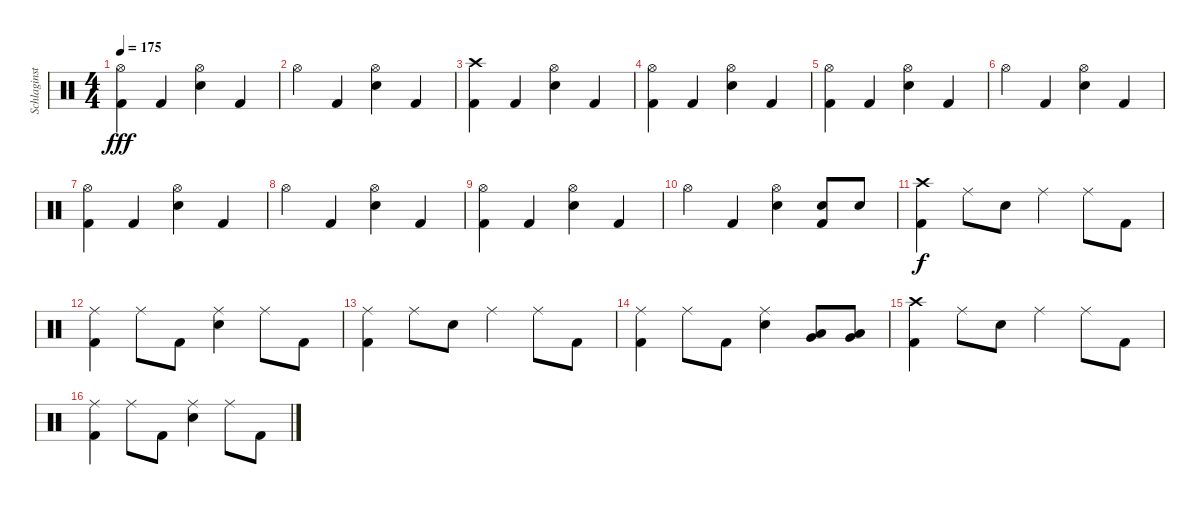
\track ("Schlaginstrumente - Auswahl" "Schlaginst") {instrument percussion}
\staff {score}
\articulation defaults
\ts (4 4)
\tempo 175
\clef neutral
\ks c
("Hi-Hat (open)" "Kick (hit) 2").4{dy fff} "Kick (hit) 2".4 ("Hi-Hat (open)" "Electric Snare (hit)").4 "Kick (hit) 2".4 |
"Hi-Hat (open)".4 "Kick (hit) 2".4 ("Hi-Hat (open)" "Electric Snare (hit)").4 "Kick (hit) 2".4 |
("Crash high (hit)" "Kick (hit) 2").4 "Kick (hit) 2".4 ("Hi-Hat (open)" "Electric Snare (hit)").4 "Kick (hit) 2".4 |
("Hi-Hat (open)" "Kick (hit) 2").4 "Kick (hit) 2".4 ("Hi-Hat (open)" "Electric Snare (hit)").4 "Kick (hit) 2".4 |
("Hi-Hat (open)" "Kick (hit) 2").4 "Kick (hit) 2".4 ("Hi-Hat (open)" "Electric Snare (hit)").4 "Kick (hit) 2".4 |
"Hi-Hat (open)".4 "Kick (hit) 2".4 ("Hi-Hat (open)" "Electric Snare (hit)").4 "Kick (hit) 2".4 |
("Hi-Hat (open)" "Kick (hit) 2").4 "Kick (hit) 2".4 ("Hi-Hat (open)" "Electric Snare (hit)").4 "Kick (hit) 2".4 |
"Hi-Hat (open)".4 "Kick (hit) 2".4 ("Hi-Hat (open)" "Electric Snare (hit)").4 "Kick (hit) 2".4 |
("Hi-Hat (open)" "Kick (hit) 2").4 "Kick (hit) 2".4 ("Hi-Hat (open)" "Electric Snare (hit)").4 "Kick (hit) 2".4 |
"Hi-Hat (open)".4 "Kick (hit) 2".4 ("Hi-Hat (open)" "Electric Snare (hit)").4 ("Electric Snare (hit)" "Kick (hit) 2").8 "Electric Snare (hit)".8 |
("Kick (hit) 2" "Crash high (hit)").4{dy f} "Ride (middle)".8 "Electric Snare (hit)".8 "Ride (middle)".4 "Ride (middle)".8 "Kick (hit) 2".8 |
("Kick (hit) 2" "Ride (middle)").4 "Ride (middle)".8 "Kick (hit) 2".8 ("Electric Snare (hit)" "Ride (middle)").4 "Ride (middle)".8 "Kick (hit) 2".8 |
("Kick (hit) 2" "Ride (middle)").4 "Ride (middle)".8 "Electric Snare (hit)".8 "Ride (middle)".4 "Ride (middle)".8 "Kick (hit) 2".8 |
("Kick (hit) 2" "Ride (middle)").4 "Ride (middle)".8 "Kick (hit) 2".8 ("Electric Snare (hit)" "Ride (middle)").4 ("Very Low Tom (hit)" "Low Floor Tom (hit)").8 ("Low Floor Tom (hit)" "Very Low Tom (hit)").8 |
("Kick (hit) 2" "Crash high (hit)").4 "Ride (middle)".8 "Electric Snare (hit)".8 "Ride (middle)".4 "Ride (middle)".8 "Kick (hit) 2".8 |
("Kick (hit) 2" "Ride (middle)").4 "Ride (middle)".8 "Kick (hit) 2".8 ("Electric Snare (hit)" "Ride (middle)").4 "Ride (middle)".8 "Kick (hit) 2".8
